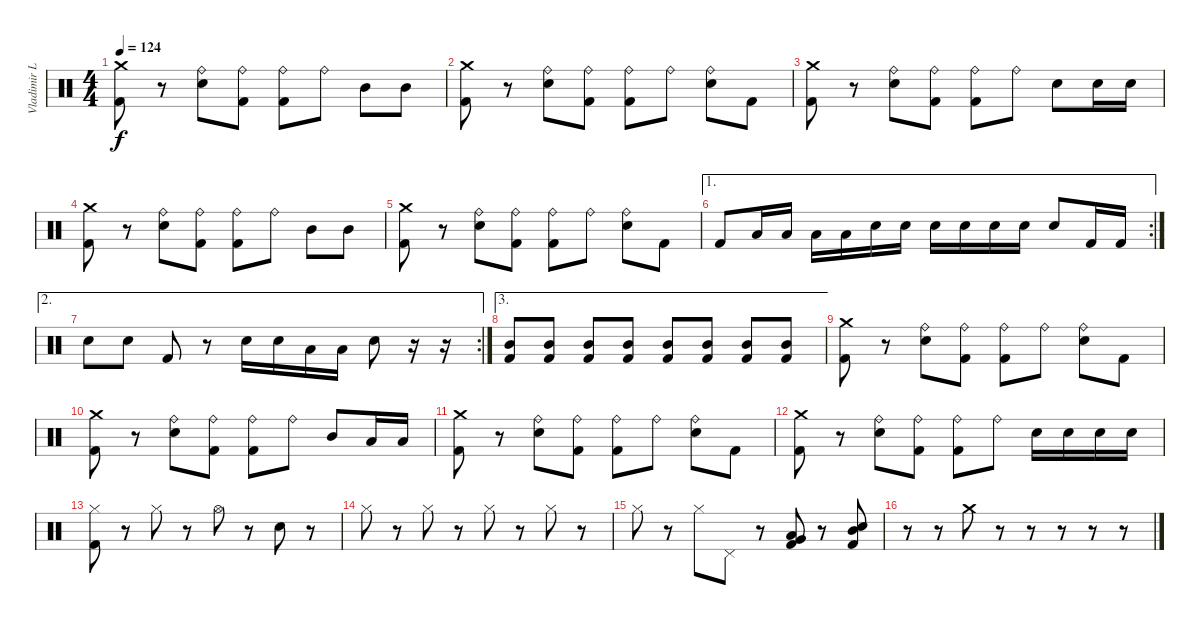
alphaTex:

\track ("Vladimir L." "Vladimir L") {instrument percussion}
\staff {score}
\articulation defaults
\ts (4 4)
\tempo 124
\clef neutral
\ks c
("Kick (hit) 2" "Crash medium (hit)").8{dy f} r.8 ("Electric Snare (hit)" "Ride (bell)").8 ("Kick (hit) 2" "Ride (bell)").8 ("Kick (hit) 2" "Ride (bell)").8 "Ride (bell)".8 "Mid Tom (hit)".8 "Mid Tom (hit)".8 |
("Kick (hit) 2" "Crash medium (hit)").8 r.8 ("Electric Snare (hit)" "Ride (bell)").8 ("Kick (hit) 2" "Ride (bell)").8 ("Kick (hit) 2" "Ride (bell)").8 "Ride (bell)".8 ("Electric Snare (hit)" "Ride (bell)").8 "Kick (hit) 2".8 |
("Kick (hit) 2" "Crash medium (hit)").8 r.8 ("Electric Snare (hit)" "Ride (bell)").8 ("Kick (hit) 2" "Ride (bell)").8 ("Kick (hit) 2" "Ride (bell)").8 "Ride (bell)".8 "Electric Snare (hit)".8 "Electric Snare (hit)".16 "Electric Snare (hit)".16 |
("Kick (hit) 2" "Crash medium (hit)").8 r.8 ("Electric Snare (hit)" "Ride (bell)").8 ("Kick (hit) 2" "Ride (bell)").8 ("Kick (hit) 2" "Ride (bell)").8 "Ride (bell)".8 "Mid Tom (hit)".8 "Mid Tom (hit)".8 |
("Kick (hit) 2" "Crash medium (hit)").8 r.8 ("Electric Snare (hit)" "Ride (bell)").8 ("Kick (hit) 2" "Ride (bell)").8 ("Kick (hit) 2" "Ride (bell)").8 "Ride (bell)".8 ("Electric Snare (hit)" "Ride (bell)").8 "Kick (hit) 2".8 |
\ae 1
\rc 2 "Kick (hit) 2".8 "Low Floor Tom (hit)".16 "Low Floor Tom (hit)".16 "Low Floor Tom (hit)".16 "Low Floor Tom (hit)".16 "Electric Snare (hit)".16 "Electric Snare (hit)".16 "Electric Snare (hit)".16 "Electric Snare (hit)".16 "Electric Snare (hit)".16 "Electric Snare (hit)".16 "Electric Snare (hit)".8 "Kick (hit) 2".16 "Kick (hit) 2".16
|
\ae 2
\rc 2 "Electric Snare (hit)".8 "Electric Snare (hit)".8 "Kick (hit) 2".8
r.8 "Electric Snare (hit)".16 "Electric Snare (hit)".16 "Low Floor Tom (hit)".16 "Low Floor Tom (hit)".16 "Electric Snare (hit)".8 r.16 r.16 |
\ae 3
("Kick (hit) 2" "Mid Tom (hit)").8 ("Kick (hit) 2" "Mid Tom (hit)").8 ("Kick (hit) 2" "Mid Tom (hit)").8 ("Kick (hit) 2" "Mid Tom (hit)").8 ("Mid Tom (hit)" "Kick (hit) 2").8 ("Mid Tom (hit)" "Kick (hit) 2").8 ("Mid Tom (hit)" "Kick (hit) 2").8 ("Mid Tom (hit)" "Kick (hit) 2").8 |
("Kick (hit) 2" "Crash medium (hit)").8 r.8 ("Electric Snare (hit)" "Ride (bell)").8 ("Kick (hit) 2" "Ride (bell)").8 ("Kick (hit) 2" "Ride (bell)").8 "Ride (bell)".8 ("Electric Snare (hit)" "Ride (bell)").8 "Kick (hit) 2".8 |
("Kick (hit) 2" "Crash medium (hit)").8 r.8 ("Electric Snare (hit)" "Ride (bell)").8 ("Kick (hit) 2" "Ride (bell)").8 ("Kick (hit) 2" "Ride (bell)").8 "Ride (bell)".8 "Mid Tom (hit)".8 "Low Floor Tom (hit)".16 "Low Floor Tom (hit)".16 |
("Kick (hit) 2" "Crash medium (hit)").8 r.8 ("Electric Snare (hit)" "Ride (bell)").8 ("Kick (hit) 2" "Ride (bell)").8 ("Kick (hit) 2" "Ride (bell)").8 "Ride (bell)".8 ("Electric Snare (hit)" "Ride (bell)").8 "Kick (hit) 2".8 |
("Kick (hit) 2" "Crash medium (hit)").8 r.8 ("Electric Snare (hit)" "Ride (bell)").8 ("Kick (hit) 2" "Ride (bell)").8 ("Kick (hit) 2" "Ride (bell)").8 "Ride (bell)".8 "Electric Snare (hit)".16 "Electric Snare (hit)".16 "Electric Snare (hit)".16 "Electric Snare (hit)".16 |
("Kick (hit) 2" "Hi-Hat (closed)").8 r.8 "Hi-Hat (closed)".8 r.8 "Hi-Hat (open)".8 r.8 "Electric Snare (hit)".8 r.8 |
"Hi-Hat (closed)".8 r.8 "Hi-Hat (closed)".8 r.8 "Hi-Hat (closed)".8 r.8 "Hi-Hat (closed)".8 r.8 |
"Hi-Hat (closed)".8 r.8 "Hi-Hat (closed)".8 "Pedal Hi-Hat (hit)".8 r.8 ("Kick (hit) 2" "Low Floor Tom (hit)" "Very Low Tom (hit)").8 r.8 ("Electric Snare (hit)" "Mid Tom (hit)" "Kick (hit) 2").8 |
r.8 r.8 "Crash medium (hit)".8 r.8 r.8 r.8 r.8 r.8
